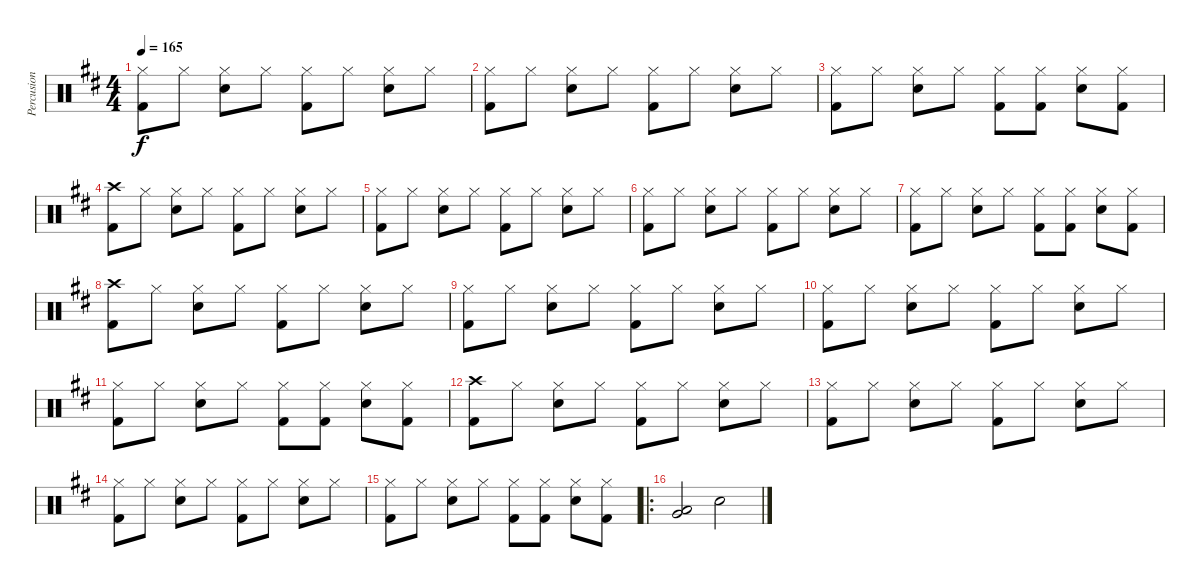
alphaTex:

\track ("Percusion" "Percusion") {instrument percussion}
\staff {score}
\articulation defaults
\ts (4 4)
\tempo 165
\clef neutral
\ks d
("Hi-Hat (closed)" "Kick (hit) 2").8{dy f} "Hi-Hat (closed)".8 ("Hi-Hat (closed)" "Electric Snare (hit)").8 "Hi-Hat (closed)".8 ("Hi-Hat (closed)" "Kick (hit) 2").8 "Hi-Hat (closed)".8 ("Hi-Hat (closed)" "Electric Snare (hit)").8 "Hi-Hat (closed)".8 |
("Hi-Hat (closed)" "Kick (hit) 2").8 "Hi-Hat (closed)".8 ("Hi-Hat (closed)" "Electric Snare (hit)").8 "Hi-Hat (closed)".8 ("Hi-Hat (closed)" "Kick (hit) 2").8 "Hi-Hat (closed)".8 ("Hi-Hat (closed)" "Electric Snare (hit)").8 "Hi-Hat (closed)".8 |
("Hi-Hat (closed)" "Kick (hit) 2").8 "Hi-Hat (closed)".8 ("Hi-Hat (closed)" "Electric Snare (hit)").8 "Hi-Hat (closed)".8 ("Hi-Hat (closed)" "Kick (hit) 2").8 ("Hi-Hat (closed)" "Kick (hit) 2").8 ("Hi-Hat (closed)" "Electric Snare (hit)").8 ("Hi-Hat (closed)" "Kick (hit) 2").8 |
("Crash high (hit)" "Kick (hit) 2").8 "Hi-Hat (closed)".8 ("Hi-Hat (closed)" "Electric Snare (hit)").8 "Hi-Hat (closed)".8 ("Hi-Hat (closed)" "Kick (hit) 2").8 "Hi-Hat (closed)".8 ("Hi-Hat (closed)" "Electric Snare (hit)").8 "Hi-Hat (closed)".8 |
("Hi-Hat (closed)" "Kick (hit) 2").8 "Hi-Hat (closed)".8 ("Hi-Hat (closed)" "Electric Snare (hit)").8 "Hi-Hat (closed)".8 ("Hi-Hat (closed)" "Kick (hit) 2").8 "Hi-Hat (closed)".8 ("Hi-Hat (closed)" "Electric Snare (hit)").8 "Hi-Hat (closed)".8 |
("Hi-Hat (closed)" "Kick (hit) 2").8 "Hi-Hat (closed)".8 ("Hi-Hat (closed)" "Electric Snare (hit)").8 "Hi-Hat (closed)".8 ("Hi-Hat (closed)" "Kick (hit) 2").8 "Hi-Hat (closed)".8 ("Hi-Hat (closed)" "Electric Snare (hit)").8 "Hi-Hat (closed)".8 |
("Hi-Hat (closed)" "Kick (hit) 2").8 "Hi-Hat (closed)".8 ("Hi-Hat (closed)" "Electric Snare (hit)").8 "Hi-Hat (closed)".8 ("Hi-Hat (closed)" "Kick (hit) 2").8 ("Hi-Hat (closed)" "Kick (hit) 2").8 ("Hi-Hat (closed)" "Electric Snare (hit)").8 ("Hi-Hat (closed)" "Kick (hit) 2").8 |
("Crash high (hit)" "Kick (hit) 2").8 "Hi-Hat (closed)".8 ("Hi-Hat (closed)" "Electric Snare (hit)").8 "Hi-Hat (closed)".8 ("Hi-Hat (closed)" "Kick (hit) 2").8 "Hi-Hat (closed)".8 ("Hi-Hat (closed)" "Electric Snare (hit)").8 "Hi-Hat (closed)".8 |
("Hi-Hat (closed)" "Kick (hit) 2").8 "Hi-Hat (closed)".8 ("Hi-Hat (closed)" "Electric Snare (hit)").8 "Hi-Hat (closed)".8 ("Hi-Hat (closed)" "Kick (hit) 2").8 "Hi-Hat (closed)".8 ("Hi-Hat (closed)" "Electric Snare (hit)").8 "Hi-Hat (closed)".8 |
("Hi-Hat (closed)" "Kick (hit) 2").8 "Hi-Hat (closed)".8 ("Hi-Hat (closed)" "Electric Snare (hit)").8 "Hi-Hat (closed)".8 ("Hi-Hat (closed)" "Kick (hit) 2").8 "Hi-Hat (closed)".8 ("Hi-Hat (closed)" "Electric Snare (hit)").8 "Hi-Hat (closed)".8 |
("Hi-Hat (closed)" "Kick (hit) 2").8 "Hi-Hat (closed)".8 ("Hi-Hat (closed)" "Electric Snare (hit)").8 "Hi-Hat (closed)".8 ("Hi-Hat (closed)" "Kick (hit) 2").8 ("Hi-Hat (closed)" "Kick (hit) 2").8 ("Hi-Hat (closed)" "Electric Snare (hit)").8 ("Hi-Hat (closed)" "Kick (hit) 2").8 |
("Crash high (hit)" "Kick (hit) 2").8 "Hi-Hat (closed)".8 ("Hi-Hat (closed)" "Electric Snare (hit)").8 "Hi-Hat (closed)".8 ("Hi-Hat (closed)" "Kick (hit) 2").8 "Hi-Hat (closed)".8 ("Hi-Hat (closed)" "Electric Snare (hit)").8 "Hi-Hat (closed)".8 |
("Hi-Hat (closed)" "Kick (hit) 2").8 "Hi-Hat (closed)".8 ("Hi-Hat (closed)" "Electric Snare (hit)").8 "Hi-Hat (closed)".8 ("Hi-Hat (closed)" "Kick (hit) 2").8 "Hi-Hat (closed)".8 ("Hi-Hat (closed)" "Electric Snare (hit)").8 "Hi-Hat (closed)".8 |
("Hi-Hat (closed)" "Kick (hit) 2").8 "Hi-Hat (closed)".8 ("Hi-Hat (closed)" "Electric Snare (hit)").8 "Hi-Hat (closed)".8 ("Hi-Hat (closed)" "Kick (hit) 2").8 "Hi-Hat (closed)".8 ("Hi-Hat (closed)" "Electric Snare (hit)").8 "Hi-Hat (closed)".8 |
("Hi-Hat (closed)" "Kick (hit) 2").8 "Hi-Hat (closed)".8 ("Hi-Hat (closed)" "Electric Snare (hit)").8 "Hi-Hat (closed)".8 ("Hi-Hat (closed)" "Kick (hit) 2").8 ("Hi-Hat (closed)" "Kick (hit) 2").8 ("Hi-Hat (closed)" "Electric Snare (hit)").8 ("Hi-Hat (closed)" "Kick (hit) 2").8 |
\ro
("Very Low Tom (hit)" "Low Floor Tom (hit)").2 "Electric Snare (hit)".2
